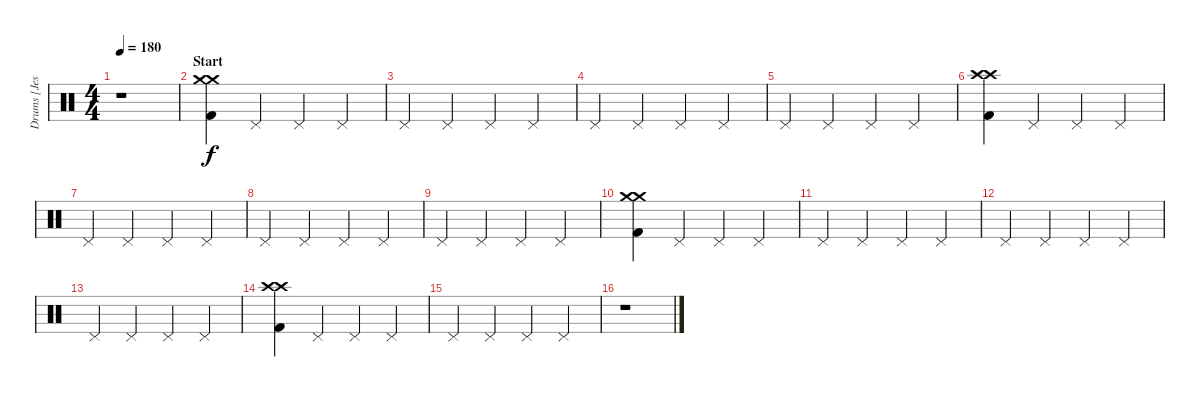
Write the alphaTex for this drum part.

\track ("Drums [Jesse Ingelevics]" "Drums [Jes") {instrument percussion}
\staff {score}
\articulation defaults
\ts (4 4)
\tempo 180
\clef neutral
\ks c
r.1{dy f} |
\section ("" "Start")
("Crash medium (hit)" "Crash medium (hit)" "Kick (hit) 2").4 "Pedal Hi-Hat (hit)".4 "Pedal Hi-Hat (hit)".4 "Pedal Hi-Hat (hit)".4 |
"Pedal Hi-Hat (hit)".4 "Pedal Hi-Hat (hit)".4 "Pedal Hi-Hat (hit)".4 "Pedal Hi-Hat (hit)".4 |
"Pedal Hi-Hat (hit)".4 "Pedal Hi-Hat (hit)".4 "Pedal Hi-Hat (hit)".4 "Pedal Hi-Hat (hit)".4 |
"Pedal Hi-Hat (hit)".4 "Pedal Hi-Hat (hit)".4 "Pedal Hi-Hat (hit)".4 "Pedal Hi-Hat (hit)".4 |
("Crash high (hit)" "Crash high (hit)" "Kick (hit) 2").4 "Pedal Hi-Hat (hit)".4 "Pedal Hi-Hat (hit)".4 "Pedal Hi-Hat (hit)".4 |
"Pedal Hi-Hat (hit)".4 "Pedal Hi-Hat (hit)".4 "Pedal Hi-Hat (hit)".4 "Pedal Hi-Hat (hit)".4 |
"Pedal Hi-Hat (hit)".4 "Pedal Hi-Hat (hit)".4 "Pedal Hi-Hat (hit)".4 "Pedal Hi-Hat (hit)".4 |
"Pedal Hi-Hat (hit)".4 "Pedal Hi-Hat (hit)".4 "Pedal Hi-Hat (hit)".4 "Pedal Hi-Hat (hit)".4 |
("Crash medium (hit)" "Crash medium (hit)" "Kick (hit) 2").4 "Pedal Hi-Hat (hit)".4 "Pedal Hi-Hat (hit)".4 "Pedal Hi-Hat (hit)".4 |
"Pedal Hi-Hat (hit)".4 "Pedal Hi-Hat (hit)".4 "Pedal Hi-Hat (hit)".4 "Pedal Hi-Hat (hit)".4 |
"Pedal Hi-Hat (hit)".4 "Pedal Hi-Hat (hit)".4 "Pedal Hi-Hat (hit)".4 "Pedal Hi-Hat (hit)".4 |
"Pedal Hi-Hat (hit)".4 "Pedal Hi-Hat (hit)".4 "Pedal Hi-Hat (hit)".4 "Pedal Hi-Hat (hit)".4 |
("Crash high (hit)" "Crash high (hit)" "Kick (hit) 2").4 "Pedal Hi-Hat (hit)".4 "Pedal Hi-Hat (hit)".4 "Pedal Hi-Hat (hit)".4 |
"Pedal Hi-Hat (hit)".4 "Pedal Hi-Hat (hit)".4 "Pedal Hi-Hat (hit)".4 "Pedal Hi-Hat (hit)".4 |
r.1
